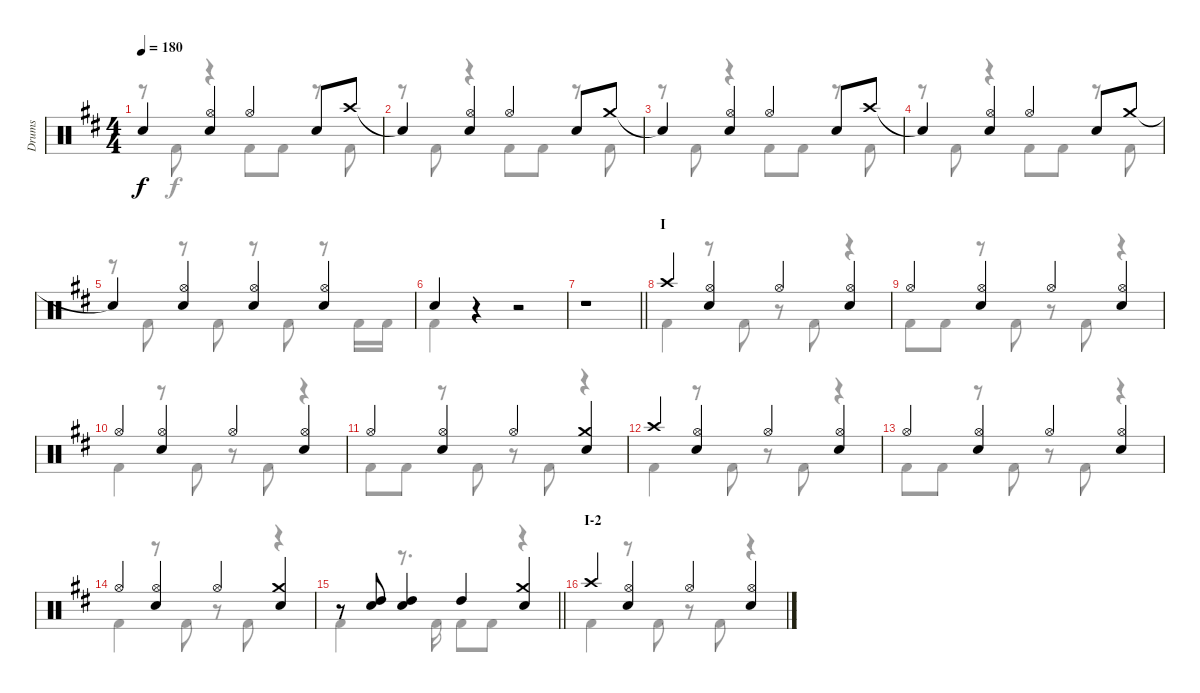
\track ("Drums" "Drums") {instrument percussion}
\staff {score}
\articulation defaults
\voice
\ts (4 4)
\tempo 180
\clef neutral
\ks d "Snare (hit)"{t}.4{dy f}
("Hi-Hat (open)" "Snare (hit) 2").4 "Hi-Hat (open)".4 "Snare (hit) 2".8 "Crash high (hit)".8 |
"Snare (hit)"{t}.4 ("Hi-Hat (open)" "Snare (hit) 2").4 "Hi-Hat (open)".4 "Snare (hit) 2".8 "Crash medium (hit)".8 |
"Snare (hit)"{t}.4 ("Hi-Hat (open)" "Snare (hit) 2").4 "Hi-Hat (open)".4 "Snare (hit) 2".8 "Crash high (hit)".8 |
"Snare (hit)"{t}.4 ("Hi-Hat (open)" "Snare (hit) 2").4 "Hi-Hat (open)".4 "Snare (hit) 2".8 "Crash medium (hit)".8 |
"Snare (hit)"{t}.4 ("Hi-Hat (open)" "Snare (hit) 2").4 ("Hi-Hat (open)" "Snare (hit) 2").4 ("Hi-Hat (open)" "Snare (hit) 2").4 |
"Snare (hit) 2".4 r.4 r.2 |
\barLineRight lightlight
r.1 |
\section ("" "I")
"Crash high (hit)".4 ("Hi-Hat (open)" "Snare (hit) 2").4 "Hi-Hat (open)".4 ("Hi-Hat (open)" "Snare (hit) 2").4 |
"Hi-Hat (open)".4 ("Hi-Hat (open)" "Snare (hit) 2").4 "Hi-Hat (open)".4 ("Hi-Hat (open)" "Snare (hit) 2").4 |
"Hi-Hat (open)".4 ("Hi-Hat (open)" "Snare (hit) 2").4 "Hi-Hat (open)".4 ("Hi-Hat (open)" "Snare (hit) 2").4 |
"Hi-Hat (open)".4 ("Hi-Hat (open)" "Snare (hit) 2").4 "Hi-Hat (open)".4 ("Crash medium (hit)" "Snare (hit) 2").4 |
"Crash high (hit)".4 ("Hi-Hat (open)" "Snare (hit) 2").4 "Hi-Hat (open)".4 ("Hi-Hat (open)" "Snare (hit) 2").4 |
"Hi-Hat (open)".4 ("Hi-Hat (open)" "Snare (hit) 2").4 "Hi-Hat (open)".4 ("Hi-Hat (open)" "Snare (hit) 2").4 |
"Hi-Hat (open)".4 ("Hi-Hat (open)" "Snare (hit) 2").4 "Hi-Hat (open)".4 ("Crash medium (hit)" "Snare (hit) 2").4 |
\barLineRight lightlight
r.8 ("High Tom (hit)" "Snare (hit) 2").8 ("High Tom (hit)" "Snare (hit) 2").4 "High Tom (hit)".4 ("Crash medium (hit)" "Snare (hit) 2").4 |
\section ("" "I-2")
"Crash high (hit)".4 ("Hi-Hat (open)" "Snare (hit) 2").4 "Hi-Hat (open)".4 ("Hi-Hat (open)" "Snare (hit) 2").4
\voice
\clef neutral
\ottava regular
\simile none
\ks d
r.8{dy f} "Kick (hit) 2".8 r.4 "Kick (hit) 2".8 "Kick (hit) 2".8 r.8 "Kick (hit) 2".8 |
r.8 "Kick (hit) 2".8 r.4 "Kick (hit) 2".8 "Kick (hit) 2".8 r.8 "Kick (hit) 2".8 |
r.8 "Kick (hit) 2".8 r.4 "Kick (hit) 2".8 "Kick (hit) 2".8 r.8 "Kick (hit) 2".8 |
r.8 "Kick (hit) 2".8 r.4 "Kick (hit) 2".8 "Kick (hit) 2".8 r.8 "Kick (hit) 2".8 |
r.8 "Kick (hit) 2".8 r.8 "Kick (hit) 2".8 r.8 "Kick (hit) 2".8 r.8 "Kick (hit) 2".16 "Kick (hit) 2".16 |
"Kick (hit) 2".4 r.4 r.2 |
\barLineRight lightlight
r.1 |
"Kick (hit) 2".4 r.8 "Kick (hit) 2".8 r.8 "Kick (hit) 2".8 r.4 |
"Kick (hit) 2".8 "Kick (hit) 2".8 r.8 "Kick (hit) 2".8 r.8 "Kick (hit) 2".8 r.4 |
"Kick (hit) 2".4 r.8 "Kick (hit) 2".8 r.8 "Kick (hit) 2".8 r.4 |
"Kick (hit) 2".8 "Kick (hit) 2".8 r.8 "Kick (hit) 2".8 r.8 "Kick (hit) 2".8 r.4 |
"Kick (hit) 2".4 r.8 "Kick (hit) 2".8 r.8 "Kick (hit) 2".8 r.4 |
"Kick (hit) 2".8 "Kick (hit) 2".8 r.8 "Kick (hit) 2".8 r.8 "Kick (hit) 2".8 r.4 |
"Kick (hit) 2".4 r.8 "Kick (hit) 2".8 r.8 "Kick (hit) 2".8 r.4 |
\barLineRight lightlight "Kick (hit) 2".4
r.8{d} "Kick (hit) 2".16 "Kick (hit) 2".8 "Kick (hit) 2".8 r.4 |
"Kick (hit) 2".4 r.8 "Kick (hit) 2".8 r.8 "Kick (hit) 2".8 r.4
